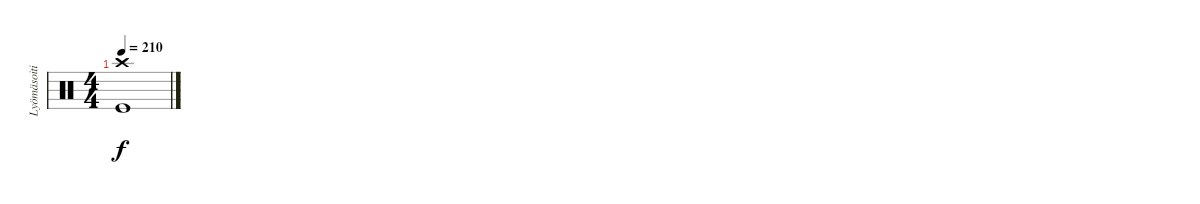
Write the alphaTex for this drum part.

\track ("Lyömäsoitin" "Lyömäsoiti") {instrument percussion}
\staff {score}
\articulation defaults
\ts (4 4)
\tempo 210
\clef neutral
\ks c
("Crash high (hit)" "Kick (hit)").1{dy f}
